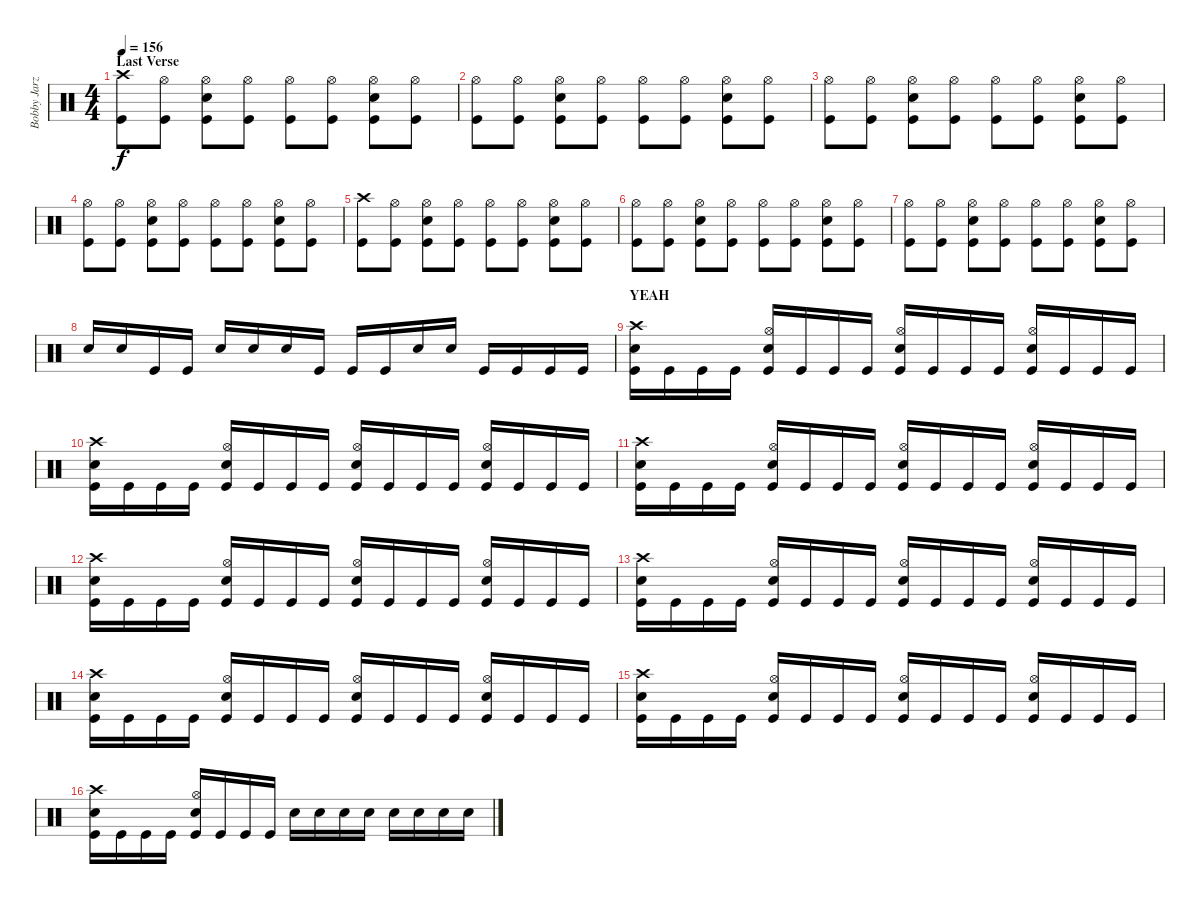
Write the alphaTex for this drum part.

\track ("Bobby Jarzombek" "Bobby Jarz") {instrument percussion}
\staff {score}
\articulation defaults
\ts (4 4)
\section ("" "Last Verse")
\tempo 156
\clef neutral
\ks c
("Crash high (hit)" "Kick (hit)").8{dy f} ("Hi-Hat (open)" "Kick (hit)").8 ("Hi-Hat (open)" "Electric Snare (hit)" "Kick (hit)").8 ("Hi-Hat (open)" "Kick (hit)").8 ("Hi-Hat (open)" "Kick (hit)").8 ("Hi-Hat (open)" "Kick (hit)").8 ("Hi-Hat (open)" "Electric Snare (hit)" "Kick (hit)").8 ("Hi-Hat (open)" "Kick (hit)").8 |
("Hi-Hat (open)" "Kick (hit)").8 ("Hi-Hat (open)" "Kick (hit)").8 ("Hi-Hat (open)" "Electric Snare (hit)" "Kick (hit)").8 ("Hi-Hat (open)" "Kick (hit)").8 ("Hi-Hat (open)" "Kick (hit)").8 ("Hi-Hat (open)" "Kick (hit)").8 ("Hi-Hat (open)" "Electric Snare (hit)" "Kick (hit)").8 ("Hi-Hat (open)" "Kick (hit)").8 |
("Hi-Hat (open)" "Kick (hit)").8 ("Hi-Hat (open)" "Kick (hit)").8 ("Hi-Hat (open)" "Electric Snare (hit)" "Kick (hit)").8 ("Hi-Hat (open)" "Kick (hit)").8 ("Hi-Hat (open)" "Kick (hit)").8 ("Hi-Hat (open)" "Kick (hit)").8 ("Hi-Hat (open)" "Electric Snare (hit)" "Kick (hit)").8 ("Hi-Hat (open)" "Kick (hit)").8 |
("Hi-Hat (open)" "Kick (hit)").8 ("Hi-Hat (open)" "Kick (hit)").8 ("Hi-Hat (open)" "Electric Snare (hit)" "Kick (hit)").8 ("Hi-Hat (open)" "Kick (hit)").8 ("Hi-Hat (open)" "Kick (hit)").8 ("Hi-Hat (open)" "Kick (hit)").8 ("Hi-Hat (open)" "Electric Snare (hit)" "Kick (hit)").8 ("Hi-Hat (open)" "Kick (hit)").8 |
("Crash high (hit)" "Kick (hit)").8 ("Hi-Hat (open)" "Kick (hit)").8 ("Hi-Hat (open)" "Electric Snare (hit)" "Kick (hit)").8 ("Hi-Hat (open)" "Kick (hit)").8 ("Hi-Hat (open)" "Kick (hit)").8 ("Hi-Hat (open)" "Kick (hit)").8 ("Hi-Hat (open)" "Electric Snare (hit)" "Kick (hit)").8 ("Hi-Hat (open)" "Kick (hit)").8 |
("Hi-Hat (open)" "Kick (hit)").8 ("Hi-Hat (open)" "Kick (hit)").8 ("Hi-Hat (open)" "Electric Snare (hit)" "Kick (hit)").8 ("Hi-Hat (open)" "Kick (hit)").8 ("Hi-Hat (open)" "Kick (hit)").8 ("Hi-Hat (open)" "Kick (hit)").8 ("Hi-Hat (open)" "Electric Snare (hit)" "Kick (hit)").8 ("Hi-Hat (open)" "Kick (hit)").8 |
("Hi-Hat (open)" "Kick (hit)").8 ("Hi-Hat (open)" "Kick (hit)").8 ("Hi-Hat (open)" "Electric Snare (hit)" "Kick (hit)").8 ("Hi-Hat (open)" "Kick (hit)").8 ("Hi-Hat (open)" "Kick (hit)").8 ("Hi-Hat (open)" "Kick (hit)").8 ("Hi-Hat (open)" "Electric Snare (hit)" "Kick (hit)").8 ("Hi-Hat (open)" "Kick (hit)").8 |
"Electric Snare (hit)".16 "Electric Snare (hit)".16 "Kick (hit)".16 "Kick (hit)".16 "Electric Snare (hit)".16 "Electric Snare (hit)".16 "Electric Snare (hit)".16 "Kick (hit)".16 "Kick (hit)".16 "Kick (hit)".16 "Electric Snare (hit)".16 "Electric Snare (hit)".16 "Kick (hit)".16 "Kick (hit)".16 "Kick (hit)".16 "Kick (hit)".16 |
\section ("" "YEAH")
("Crash high (hit)" "Electric Snare (hit)" "Kick (hit)").16 "Kick (hit)".16 "Kick (hit)".16 "Kick (hit)".16 ("Hi-Hat (open)" "Electric Snare (hit)" "Kick (hit)").16 "Kick (hit)".16 "Kick (hit)".16 "Kick (hit)".16 ("Hi-Hat (open)" "Electric Snare (hit)" "Kick (hit)").16 "Kick (hit)".16 "Kick (hit)".16 "Kick (hit)".16 ("Hi-Hat (open)" "Electric Snare (hit)" "Kick (hit)").16 "Kick (hit)".16 "Kick (hit)".16 "Kick (hit)".16 |
("Crash high (hit)" "Electric Snare (hit)" "Kick (hit)").16 "Kick (hit)".16 "Kick (hit)".16 "Kick (hit)".16 ("Hi-Hat (open)" "Electric Snare (hit)" "Kick (hit)").16 "Kick (hit)".16 "Kick (hit)".16 "Kick (hit)".16 ("Hi-Hat (open)" "Electric Snare (hit)" "Kick (hit)").16 "Kick (hit)".16 "Kick (hit)".16 "Kick (hit)".16 ("Hi-Hat (open)" "Electric Snare (hit)" "Kick (hit)").16 "Kick (hit)".16 "Kick (hit)".16 "Kick (hit)".16 |
("Crash high (hit)" "Electric Snare (hit)" "Kick (hit)").16 "Kick (hit)".16 "Kick (hit)".16 "Kick (hit)".16 ("Hi-Hat (open)" "Electric Snare (hit)" "Kick (hit)").16 "Kick (hit)".16 "Kick (hit)".16 "Kick (hit)".16 ("Hi-Hat (open)" "Electric Snare (hit)" "Kick (hit)").16 "Kick (hit)".16 "Kick (hit)".16 "Kick (hit)".16 ("Hi-Hat (open)" "Electric Snare (hit)" "Kick (hit)").16 "Kick (hit)".16 "Kick (hit)".16 "Kick (hit)".16 |
("Crash high (hit)" "Electric Snare (hit)" "Kick (hit)").16 "Kick (hit)".16 "Kick (hit)".16 "Kick (hit)".16 ("Hi-Hat (open)" "Electric Snare (hit)" "Kick (hit)").16 "Kick (hit)".16 "Kick (hit)".16 "Kick (hit)".16 ("Hi-Hat (open)" "Electric Snare (hit)" "Kick (hit)").16 "Kick (hit)".16 "Kick (hit)".16 "Kick (hit)".16 ("Hi-Hat (open)" "Electric Snare (hit)" "Kick (hit)").16 "Kick (hit)".16 "Kick (hit)".16 "Kick (hit)".16 |
("Crash high (hit)" "Electric Snare (hit)" "Kick (hit)").16 "Kick (hit)".16 "Kick (hit)".16 "Kick (hit)".16 ("Hi-Hat (open)" "Electric Snare (hit)" "Kick (hit)").16 "Kick (hit)".16 "Kick (hit)".16 "Kick (hit)".16 ("Hi-Hat (open)" "Electric Snare (hit)" "Kick (hit)").16 "Kick (hit)".16 "Kick (hit)".16 "Kick (hit)".16 ("Hi-Hat (open)" "Electric Snare (hit)" "Kick (hit)").16 "Kick (hit)".16 "Kick (hit)".16 "Kick (hit)".16 |
("Crash high (hit)" "Electric Snare (hit)" "Kick (hit)").16 "Kick (hit)".16 "Kick (hit)".16 "Kick (hit)".16 ("Hi-Hat (open)" "Electric Snare (hit)" "Kick (hit)").16 "Kick (hit)".16 "Kick (hit)".16 "Kick (hit)".16 ("Hi-Hat (open)" "Electric Snare (hit)" "Kick (hit)").16 "Kick (hit)".16 "Kick (hit)".16 "Kick (hit)".16 ("Hi-Hat (open)" "Electric Snare (hit)" "Kick (hit)").16 "Kick (hit)".16 "Kick (hit)".16 "Kick (hit)".16 |
("Crash high (hit)" "Electric Snare (hit)" "Kick (hit)").16 "Kick (hit)".16 "Kick (hit)".16 "Kick (hit)".16 ("Hi-Hat (open)" "Electric Snare (hit)" "Kick (hit)").16 "Kick (hit)".16 "Kick (hit)".16 "Kick (hit)".16 ("Hi-Hat (open)" "Electric Snare (hit)" "Kick (hit)").16 "Kick (hit)".16 "Kick (hit)".16 "Kick (hit)".16 ("Hi-Hat (open)" "Electric Snare (hit)" "Kick (hit)").16 "Kick (hit)".16 "Kick (hit)".16 "Kick (hit)".16 |
("Crash high (hit)" "Electric Snare (hit)" "Kick (hit)").16 "Kick (hit)".16 "Kick (hit)".16 "Kick (hit)".16 ("Hi-Hat (open)" "Electric Snare (hit)" "Kick (hit)").16 "Kick (hit)".16 "Kick (hit)".16 "Kick (hit)".16 "Electric Snare (hit)".16 "Electric Snare (hit)".16 "Electric Snare (hit)".16 "Electric Snare (hit)".16 "Electric Snare (hit)".16 "Electric Snare (hit)".16 "Electric Snare (hit)".16 "Electric Snare (hit)".16
